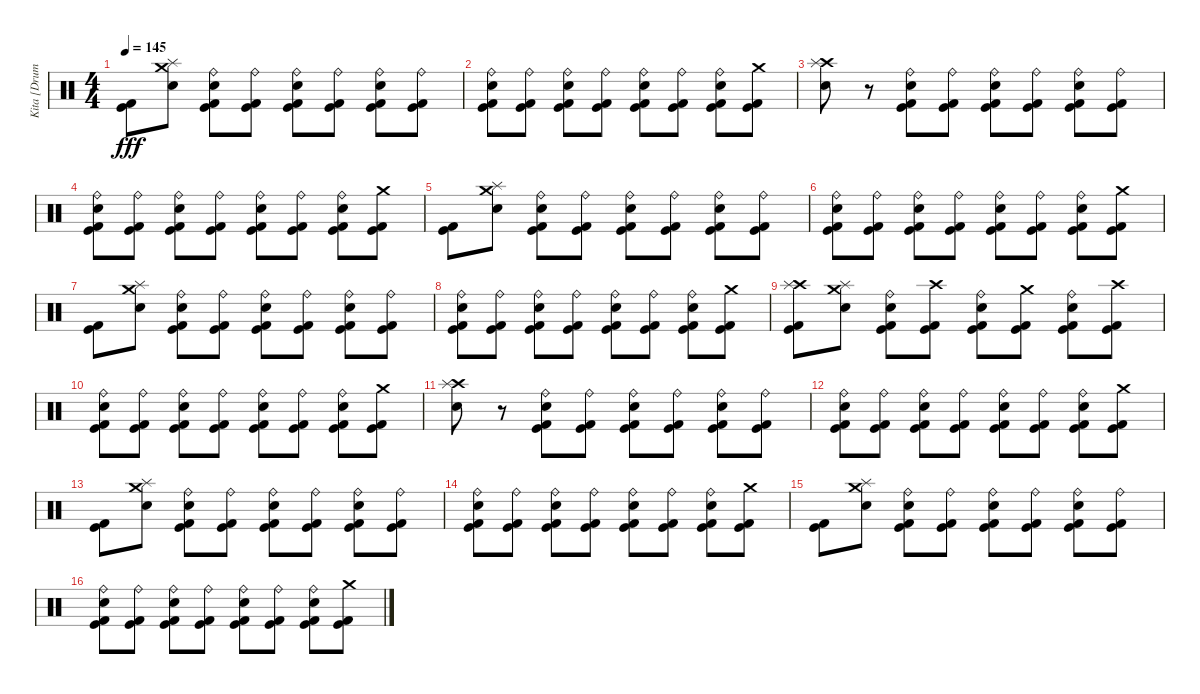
\track ("Kita [Drums]" "Kita [Drum") {instrument percussion}
\staff {score}
\articulation defaults
\ts (4 4)
\tempo 145
\clef neutral
\ks c
("Kick (hit)" "Kick (hit) 2").8{dy fff} ("Crash medium (hit)" "Splash (hit)" "Electric Snare (hit)").8 ("Ride (bell)" "Electric Snare (hit)" "Kick (hit)" "Kick (hit) 2").8 ("Ride (bell)" "Kick (hit)" "Kick (hit) 2").8 ("Ride (bell)" "Electric Snare (hit)" "Kick (hit)" "Kick (hit) 2").8 ("Ride (bell)" "Kick (hit)" "Kick (hit) 2").8 ("Ride (bell)" "Electric Snare (hit)" "Kick (hit)" "Kick (hit) 2").8 ("Ride (bell)" "Kick (hit)" "Kick (hit) 2").8 |
("Ride (bell)" "Electric Snare (hit)" "Kick (hit)" "Kick (hit) 2").8 ("Ride (bell)" "Kick (hit)" "Kick (hit) 2").8 ("Ride (bell)" "Electric Snare (hit)" "Kick (hit)" "Kick (hit) 2").8 ("Ride (bell)" "Kick (hit)" "Kick (hit) 2").8 ("Ride (bell)" "Electric Snare (hit)" "Kick (hit)" "Kick (hit) 2").8 ("Ride (bell)" "Kick (hit)" "Kick (hit) 2").8 ("Ride (bell)" "Electric Snare (hit)" "Kick (hit)" "Kick (hit) 2").8 ("Crash medium (hit)" "Kick (hit)" "Kick (hit) 2").8 |
("Crash high (hit)" "Splash (hit)" "Electric Snare (hit)").8 r.8 ("Ride (bell)" "Electric Snare (hit)" "Kick (hit)" "Kick (hit) 2").8 ("Ride (bell)" "Kick (hit)" "Kick (hit) 2").8 ("Ride (bell)" "Electric Snare (hit)" "Kick (hit)" "Kick (hit) 2").8 ("Ride (bell)" "Kick (hit)" "Kick (hit) 2").8 ("Ride (bell)" "Electric Snare (hit)" "Kick (hit)" "Kick (hit) 2").8 ("Ride (bell)" "Kick (hit)" "Kick (hit) 2").8 |
("Ride (bell)" "Electric Snare (hit)" "Kick (hit)" "Kick (hit) 2").8 ("Ride (bell)" "Kick (hit)" "Kick (hit) 2").8 ("Ride (bell)" "Electric Snare (hit)" "Kick (hit)" "Kick (hit) 2").8 ("Ride (bell)" "Kick (hit)" "Kick (hit) 2").8 ("Ride (bell)" "Electric Snare (hit)" "Kick (hit)" "Kick (hit) 2").8 ("Ride (bell)" "Kick (hit)" "Kick (hit) 2").8 ("Ride (bell)" "Electric Snare (hit)" "Kick (hit)" "Kick (hit) 2").8 ("Crash medium (hit)" "Kick (hit)" "Kick (hit) 2").8 |
("Kick (hit)" "Kick (hit) 2").8 ("Crash medium (hit)" "Splash (hit)" "Electric Snare (hit)").8 ("Ride (bell)" "Electric Snare (hit)" "Kick (hit)" "Kick (hit) 2").8 ("Ride (bell)" "Kick (hit)" "Kick (hit) 2").8 ("Ride (bell)" "Electric Snare (hit)" "Kick (hit)" "Kick (hit) 2").8 ("Ride (bell)" "Kick (hit)" "Kick (hit) 2").8 ("Ride (bell)" "Electric Snare (hit)" "Kick (hit)" "Kick (hit) 2").8 ("Ride (bell)" "Kick (hit)" "Kick (hit) 2").8 |
("Ride (bell)" "Electric Snare (hit)" "Kick (hit)" "Kick (hit) 2").8 ("Ride (bell)" "Kick (hit)" "Kick (hit) 2").8 ("Ride (bell)" "Electric Snare (hit)" "Kick (hit)" "Kick (hit) 2").8 ("Ride (bell)" "Kick (hit)" "Kick (hit) 2").8 ("Ride (bell)" "Electric Snare (hit)" "Kick (hit)" "Kick (hit) 2").8 ("Ride (bell)" "Kick (hit)" "Kick (hit) 2").8 ("Ride (bell)" "Electric Snare (hit)" "Kick (hit)" "Kick (hit) 2").8 ("Crash medium (hit)" "Kick (hit)" "Kick (hit) 2").8 |
("Kick (hit)" "Kick (hit) 2").8 ("Crash medium (hit)" "Splash (hit)" "Electric Snare (hit)").8 ("Ride (bell)" "Electric Snare (hit)" "Kick (hit)" "Kick (hit) 2").8 ("Ride (bell)" "Kick (hit)" "Kick (hit) 2").8 ("Ride (bell)" "Electric Snare (hit)" "Kick (hit)" "Kick (hit) 2").8 ("Ride (bell)" "Kick (hit)" "Kick (hit) 2").8 ("Ride (bell)" "Electric Snare (hit)" "Kick (hit)" "Kick (hit) 2").8 ("Ride (bell)" "Kick (hit)" "Kick (hit) 2").8 |
("Ride (bell)" "Electric Snare (hit)" "Kick (hit)" "Kick (hit) 2").8 ("Ride (bell)" "Kick (hit)" "Kick (hit) 2").8 ("Ride (bell)" "Electric Snare (hit)" "Kick (hit)" "Kick (hit) 2").8 ("Ride (bell)" "Kick (hit)" "Kick (hit) 2").8 ("Ride (bell)" "Electric Snare (hit)" "Kick (hit)" "Kick (hit) 2").8 ("Ride (bell)" "Kick (hit)" "Kick (hit) 2").8 ("Ride (bell)" "Electric Snare (hit)" "Kick (hit)" "Kick (hit) 2").8 ("Crash medium (hit)" "Kick (hit)" "Kick (hit) 2").8 |
("Crash high (hit)" "Splash (hit)" "Kick (hit)" "Kick (hit) 2").8 ("Crash medium (hit)" "Splash (hit)" "Electric Snare (hit)").8 ("Ride (bell)" "Electric Snare (hit)" "Kick (hit)" "Kick (hit) 2").8 ("Crash high (hit)" "Kick (hit)" "Kick (hit) 2").8 ("Ride (bell)" "Electric Snare (hit)" "Kick (hit)" "Kick (hit) 2").8 ("Crash medium (hit)" "Kick (hit)" "Kick (hit) 2").8 ("Ride (bell)" "Electric Snare (hit)" "Kick (hit)" "Kick (hit) 2").8 ("Crash high (hit)" "Kick (hit)" "Kick (hit) 2").8 |
("Ride (bell)" "Electric Snare (hit)" "Kick (hit)" "Kick (hit) 2").8 ("Ride (bell)" "Kick (hit)" "Kick (hit) 2").8 ("Ride (bell)" "Electric Snare (hit)" "Kick (hit)" "Kick (hit) 2").8 ("Ride (bell)" "Kick (hit)" "Kick (hit) 2").8 ("Ride (bell)" "Electric Snare (hit)" "Kick (hit)" "Kick (hit) 2").8 ("Ride (bell)" "Kick (hit)" "Kick (hit) 2").8 ("Ride (bell)" "Electric Snare (hit)" "Kick (hit)" "Kick (hit) 2").8 ("Crash medium (hit)" "Kick (hit)" "Kick (hit) 2").8 |
("Crash high (hit)" "Splash (hit)" "Electric Snare (hit)").8 r.8 ("Ride (bell)" "Electric Snare (hit)" "Kick (hit)" "Kick (hit) 2").8 ("Ride (bell)" "Kick (hit)" "Kick (hit) 2").8 ("Ride (bell)" "Electric Snare (hit)" "Kick (hit)" "Kick (hit) 2").8 ("Ride (bell)" "Kick (hit)" "Kick (hit) 2").8 ("Ride (bell)" "Electric Snare (hit)" "Kick (hit)" "Kick (hit) 2").8 ("Ride (bell)" "Kick (hit)" "Kick (hit) 2").8 |
("Ride (bell)" "Electric Snare (hit)" "Kick (hit)" "Kick (hit) 2").8 ("Ride (bell)" "Kick (hit)" "Kick (hit) 2").8 ("Ride (bell)" "Electric Snare (hit)" "Kick (hit)" "Kick (hit) 2").8 ("Ride (bell)" "Kick (hit)" "Kick (hit) 2").8 ("Ride (bell)" "Electric Snare (hit)" "Kick (hit)" "Kick (hit) 2").8 ("Ride (bell)" "Kick (hit)" "Kick (hit) 2").8 ("Ride (bell)" "Electric Snare (hit)" "Kick (hit)" "Kick (hit) 2").8 ("Crash medium (hit)" "Kick (hit)" "Kick (hit) 2").8 |
("Kick (hit)" "Kick (hit) 2").8 ("Crash medium (hit)" "Splash (hit)" "Electric Snare (hit)").8 ("Ride (bell)" "Electric Snare (hit)" "Kick (hit)" "Kick (hit) 2").8 ("Ride (bell)" "Kick (hit)" "Kick (hit) 2").8 ("Ride (bell)" "Electric Snare (hit)" "Kick (hit)" "Kick (hit) 2").8 ("Ride (bell)" "Kick (hit)" "Kick (hit) 2").8 ("Ride (bell)" "Electric Snare (hit)" "Kick (hit)" "Kick (hit) 2").8 ("Ride (bell)" "Kick (hit)" "Kick (hit) 2").8 |
("Ride (bell)" "Electric Snare (hit)" "Kick (hit)" "Kick (hit) 2").8 ("Ride (bell)" "Kick (hit)" "Kick (hit) 2").8 ("Ride (bell)" "Electric Snare (hit)" "Kick (hit)" "Kick (hit) 2").8 ("Ride (bell)" "Kick (hit)" "Kick (hit) 2").8 ("Ride (bell)" "Electric Snare (hit)" "Kick (hit)" "Kick (hit) 2").8 ("Ride (bell)" "Kick (hit)" "Kick (hit) 2").8 ("Ride (bell)" "Electric Snare (hit)" "Kick (hit)" "Kick (hit) 2").8 ("Crash medium (hit)" "Kick (hit)" "Kick (hit) 2").8 |
("Kick (hit)" "Kick (hit) 2").8 ("Crash medium (hit)" "Splash (hit)" "Electric Snare (hit)").8 ("Ride (bell)" "Electric Snare (hit)" "Kick (hit)" "Kick (hit) 2").8 ("Ride (bell)" "Kick (hit)" "Kick (hit) 2").8 ("Ride (bell)" "Electric Snare (hit)" "Kick (hit)" "Kick (hit) 2").8 ("Ride (bell)" "Kick (hit)" "Kick (hit) 2").8 ("Ride (bell)" "Electric Snare (hit)" "Kick (hit)" "Kick (hit) 2").8 ("Ride (bell)" "Kick (hit)" "Kick (hit) 2").8 |
("Ride (bell)" "Electric Snare (hit)" "Kick (hit)" "Kick (hit) 2").8 ("Ride (bell)" "Kick (hit)" "Kick (hit) 2").8 ("Ride (bell)" "Electric Snare (hit)" "Kick (hit)" "Kick (hit) 2").8 ("Ride (bell)" "Kick (hit)" "Kick (hit) 2").8 ("Ride (bell)" "Electric Snare (hit)" "Kick (hit)" "Kick (hit) 2").8 ("Ride (bell)" "Kick (hit)" "Kick (hit) 2").8 ("Ride (bell)" "Electric Snare (hit)" "Kick (hit)" "Kick (hit) 2").8 ("Crash medium (hit)" "Kick (hit)" "Kick (hit) 2").8
